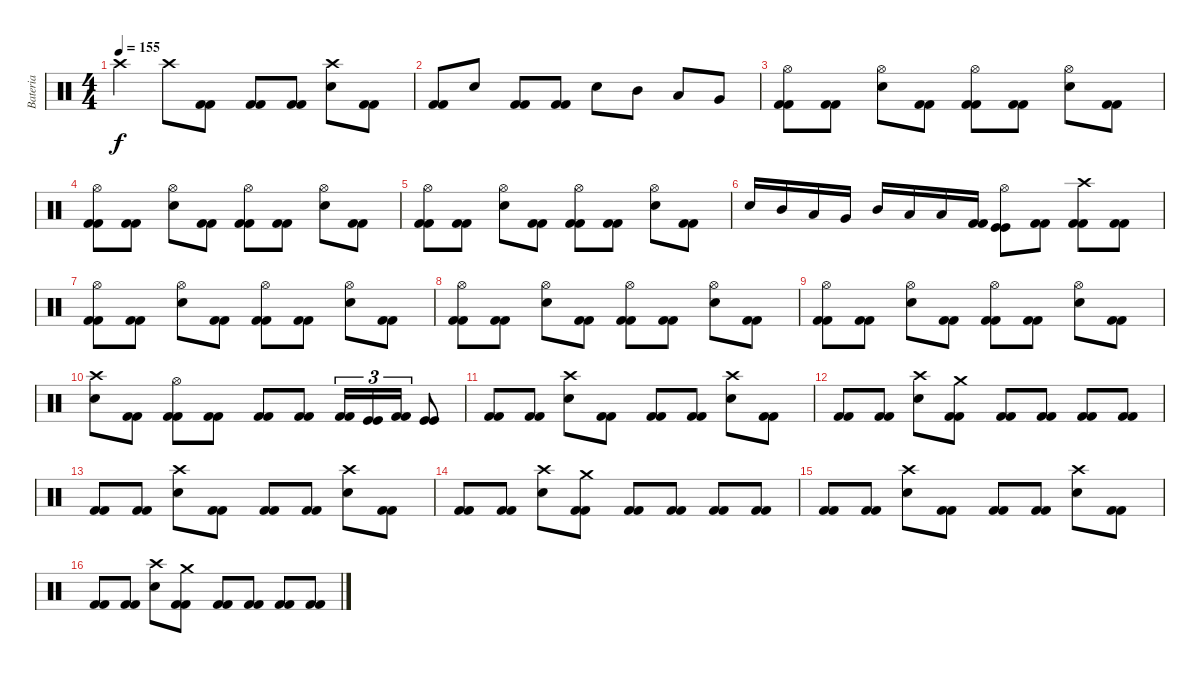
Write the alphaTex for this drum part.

\track ("Bateria" "Bateria") {instrument percussion}
\staff {score}
\articulation defaults
\ts (4 4)
\tempo 155
\clef neutral
\ks c "Crash high (hit)".4{dy f} "Crash high (hit)".8
("Kick (hit) 2" "Kick (hit) 2").8 ("Kick (hit) 2" "Kick (hit) 2").8 ("Kick (hit) 2" "Kick (hit) 2").8 ("Snare (hit) 2" "Crash high (hit)").8 ("Kick (hit) 2" "Kick (hit) 2").8 |
("Kick (hit) 2" "Kick (hit) 2").8 "Snare (hit) 2".8 ("Kick (hit) 2" "Kick (hit) 2").8 ("Kick (hit) 2" "Kick (hit) 2").8 "Snare (hit) 2".8 "Mid Tom (hit)".8 "Low Tom (hit)".8 "Very Low Tom (hit)".8 |
("Kick (hit) 2" "Kick (hit) 2" "Hi-Hat (open)").8 ("Kick (hit) 2" "Kick (hit) 2").8 ("Snare (hit) 2" "Hi-Hat (open)").8 ("Kick (hit) 2" "Kick (hit) 2").8 ("Kick (hit) 2" "Kick (hit) 2" "Hi-Hat (open)").8 ("Kick (hit) 2" "Kick (hit) 2").8 ("Snare (hit) 2" "Hi-Hat (open)").8 ("Kick (hit) 2" "Kick (hit) 2").8 |
("Kick (hit) 2" "Kick (hit) 2" "Hi-Hat (open)").8 ("Kick (hit) 2" "Kick (hit) 2").8 ("Snare (hit) 2" "Hi-Hat (open)").8 ("Kick (hit) 2" "Kick (hit) 2").8 ("Kick (hit) 2" "Kick (hit) 2" "Hi-Hat (open)").8 ("Kick (hit) 2" "Kick (hit) 2").8 ("Snare (hit) 2" "Hi-Hat (open)").8 ("Kick (hit) 2" "Kick (hit) 2").8 |
("Kick (hit) 2" "Kick (hit) 2" "Hi-Hat (open)").8 ("Kick (hit) 2" "Kick (hit) 2").8 ("Snare (hit) 2" "Hi-Hat (open)").8 ("Kick (hit) 2" "Kick (hit) 2").8 ("Kick (hit) 2" "Kick (hit) 2" "Hi-Hat (open)").8 ("Kick (hit) 2" "Kick (hit) 2").8 ("Snare (hit) 2" "Hi-Hat (open)").8 ("Kick (hit) 2" "Kick (hit) 2").8 |
"Snare (hit) 2".16 "Mid Tom (hit)".16 "Low Tom (hit)".16 "Very Low Tom (hit)".16 "Mid Tom (hit)".16 "Low Tom (hit)".16 "Low Floor Tom (hit)".16 ("Kick (hit) 2" "Kick (hit) 2").16 ("Kick (hit)" "Kick (hit)" "Hi-Hat (open)").8 ("Kick (hit) 2" "Kick (hit) 2").8 ("Kick (hit) 2" "Kick (hit) 2" "Crash high (hit)").8 ("Kick (hit) 2" "Kick (hit) 2").8 |
("Kick (hit) 2" "Kick (hit) 2" "Hi-Hat (open)").8 ("Kick (hit) 2" "Kick (hit) 2").8 ("Snare (hit) 2" "Hi-Hat (open)").8 ("Kick (hit) 2" "Kick (hit) 2").8 ("Kick (hit) 2" "Kick (hit) 2" "Hi-Hat (open)").8 ("Kick (hit) 2" "Kick (hit) 2").8 ("Snare (hit) 2" "Hi-Hat (open)").8 ("Kick (hit) 2" "Kick (hit) 2").8 |
("Kick (hit) 2" "Kick (hit) 2" "Hi-Hat (open)").8 ("Kick (hit) 2" "Kick (hit) 2").8 ("Snare (hit) 2" "Hi-Hat (open)").8 ("Kick (hit) 2" "Kick (hit) 2").8 ("Kick (hit) 2" "Kick (hit) 2" "Hi-Hat (open)").8 ("Kick (hit) 2" "Kick (hit) 2").8 ("Snare (hit) 2" "Hi-Hat (open)").8 ("Kick (hit) 2" "Kick (hit) 2").8 |
("Kick (hit) 2" "Kick (hit) 2" "Hi-Hat (open)").8 ("Kick (hit) 2" "Kick (hit) 2").8 ("Snare (hit) 2" "Hi-Hat (open)").8 ("Kick (hit) 2" "Kick (hit) 2").8 ("Kick (hit) 2" "Kick (hit) 2" "Hi-Hat (open)").8 ("Kick (hit) 2" "Kick (hit) 2").8 ("Snare (hit) 2" "Hi-Hat (open)").8 ("Kick (hit) 2" "Kick (hit) 2").8 |
("Snare (hit) 2" "Crash high (hit)").8 ("Kick (hit) 2" "Kick (hit) 2").8 ("Kick (hit) 2" "Kick (hit) 2" "Hi-Hat (open)").8 ("Kick (hit) 2" "Kick (hit) 2").8 ("Kick (hit) 2" "Kick (hit) 2").8 ("Kick (hit) 2" "Kick (hit) 2").8 ("Kick (hit) 2" "Kick (hit) 2").16{tu (3 2)} ("Kick (hit)" "Kick (hit)").16{tu (3 2)} ("Kick (hit) 2" "Kick (hit) 2").16{tu (3 2)} ("Kick (hit)" "Kick (hit)").8 |
("Kick (hit) 2" "Kick (hit) 2").8 ("Kick (hit) 2" "Kick (hit) 2").8 ("Snare (hit) 2" "Crash high (hit)").8 ("Kick (hit) 2" "Kick (hit) 2").8 ("Kick (hit) 2" "Kick (hit) 2").8 ("Kick (hit) 2" "Kick (hit) 2").8 ("Snare (hit) 2" "Crash high (hit)").8 ("Kick (hit) 2" "Kick (hit) 2").8 |
("Kick (hit) 2" "Kick (hit) 2").8 ("Kick (hit) 2" "Kick (hit) 2").8 ("Snare (hit) 2" "Crash high (hit)").8 ("Kick (hit) 2" "Kick (hit) 2" "Crash medium (hit)").8 ("Kick (hit) 2" "Kick (hit) 2").8 ("Kick (hit) 2" "Kick (hit) 2").8 ("Kick (hit) 2" "Kick (hit) 2").8 ("Kick (hit) 2" "Kick (hit) 2").8 |
("Kick (hit) 2" "Kick (hit) 2").8 ("Kick (hit) 2" "Kick (hit) 2").8 ("Snare (hit) 2" "Crash high (hit)").8 ("Kick (hit) 2" "Kick (hit) 2").8 ("Kick (hit) 2" "Kick (hit) 2").8 ("Kick (hit) 2" "Kick (hit) 2").8 ("Snare (hit) 2" "Crash high (hit)").8 ("Kick (hit) 2" "Kick (hit) 2").8 |
("Kick (hit) 2" "Kick (hit) 2").8 ("Kick (hit) 2" "Kick (hit) 2").8 ("Snare (hit) 2" "Crash high (hit)").8 ("Kick (hit) 2" "Kick (hit) 2" "Crash medium (hit)").8 ("Kick (hit) 2" "Kick (hit) 2").8 ("Kick (hit) 2" "Kick (hit) 2").8 ("Kick (hit) 2" "Kick (hit) 2").8 ("Kick (hit) 2" "Kick (hit) 2").8 |
("Kick (hit) 2" "Kick (hit) 2").8 ("Kick (hit) 2" "Kick (hit) 2").8 ("Snare (hit) 2" "Crash high (hit)").8 ("Kick (hit) 2" "Kick (hit) 2").8 ("Kick (hit) 2" "Kick (hit) 2").8 ("Kick (hit) 2" "Kick (hit) 2").8 ("Snare (hit) 2" "Crash high (hit)").8 ("Kick (hit) 2" "Kick (hit) 2").8 |
("Kick (hit) 2" "Kick (hit) 2").8 ("Kick (hit) 2" "Kick (hit) 2").8 ("Snare (hit) 2" "Crash high (hit)").8 ("Kick (hit) 2" "Kick (hit) 2" "Crash medium (hit)").8 ("Kick (hit) 2" "Kick (hit) 2").8 ("Kick (hit) 2" "Kick (hit) 2").8 ("Kick (hit) 2" "Kick (hit) 2").8 ("Kick (hit) 2" "Kick (hit) 2").8
